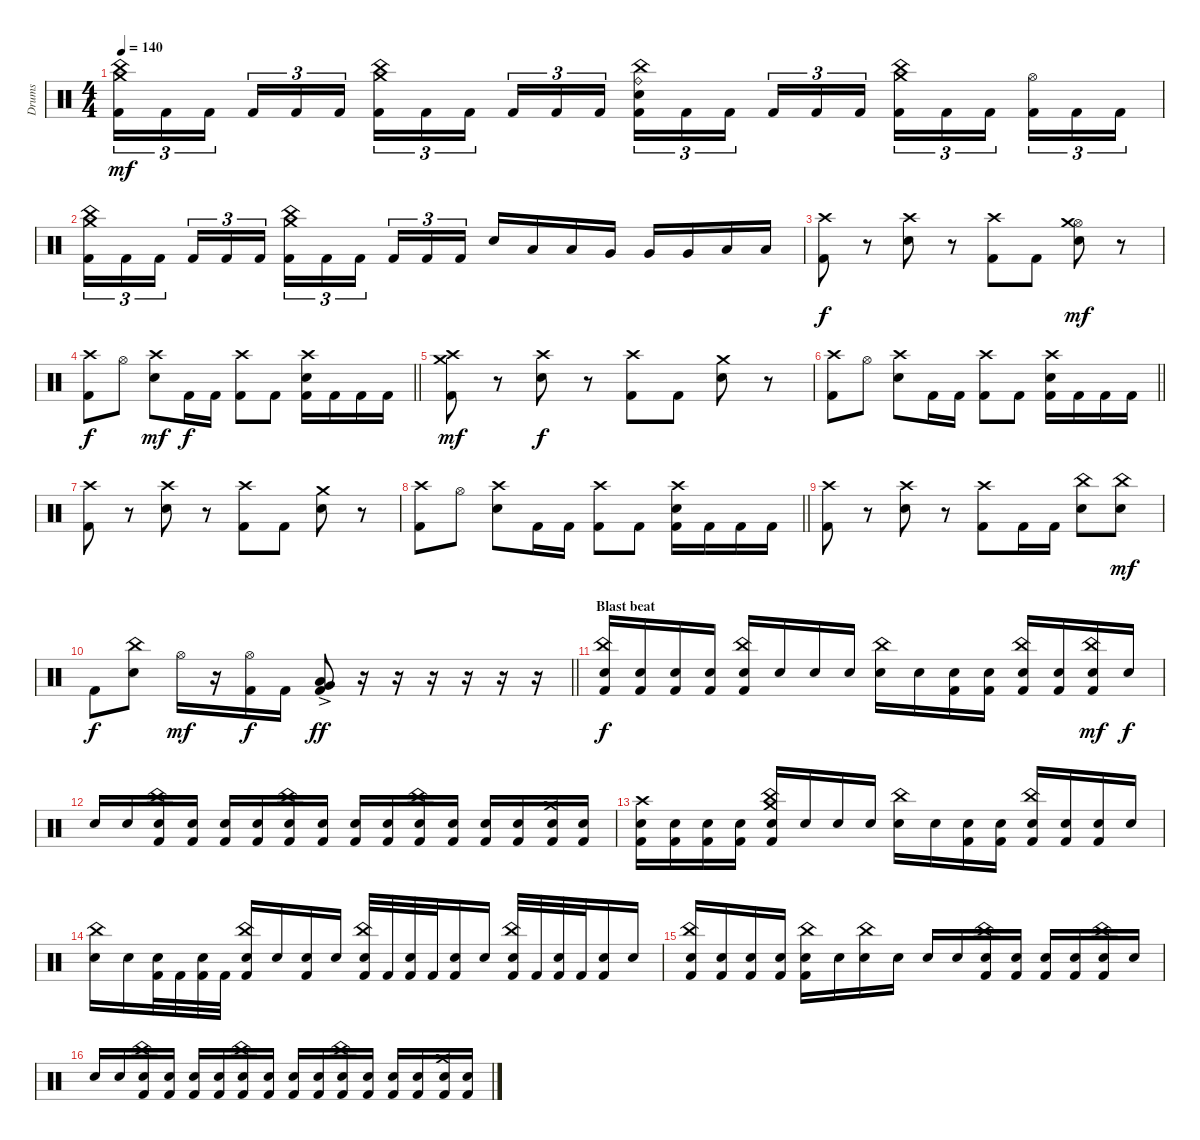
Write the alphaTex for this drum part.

\track ("Drums" "Drums") {instrument percussion}
\staff {score}
\articulation defaults
\ts (4 4)
\tempo 140
\clef neutral
\ks c
("Kick (hit) 2" "China (hit)" "Crash medium (hit)").16{tu (3 2) dy mf} "Kick (hit) 2".16{tu (3 2)} "Kick (hit) 2".16{tu (3 2) beam splitsecondary} "Kick (hit) 2".16{tu (3 2)} "Kick (hit) 2".16{tu (3 2)} "Kick (hit) 2".16{tu (3 2)} ("Kick (hit) 2" "China (hit)" "Crash medium (hit)").16{tu (3 2)} "Kick (hit) 2".16{tu (3 2)} "Kick (hit) 2".16{tu (3 2) beam splitsecondary} "Kick (hit) 2".16{tu (3 2)} "Kick (hit) 2".16{tu (3 2)} "Kick (hit) 2".16{tu (3 2)} ("Kick (hit) 2" "Electric Snare (hit)" "Ride (bell)" "China (hit)").16{tu (3 2)} "Kick (hit) 2".16{tu (3 2)} "Kick (hit) 2".16{tu (3 2) beam splitsecondary} "Kick (hit) 2".16{tu (3 2)} "Kick (hit) 2".16{tu (3 2)} "Kick (hit) 2".16{tu (3 2)} ("Kick (hit) 2" "China (hit)" "Crash medium (hit)").16{tu (3 2)} "Kick (hit) 2".16{tu (3 2)} "Kick (hit) 2".16{tu (3 2) beam splitsecondary} ("Kick (hit) 2" "Hi-Hat (open)").16{tu (3 2)} "Kick (hit) 2".16{tu (3 2)} "Kick (hit) 2".16{tu (3 2)} |
("Kick (hit) 2" "China (hit)" "Crash medium (hit)").16{tu (3 2)} "Kick (hit) 2".16{tu (3 2)} "Kick (hit) 2".16{tu (3 2) beam splitsecondary} "Kick (hit) 2".16{tu (3 2)} "Kick (hit) 2".16{tu (3 2)} "Kick (hit) 2".16{tu (3 2)} ("Kick (hit) 2" "China (hit)" "Crash medium (hit)").16{tu (3 2)} "Kick (hit) 2".16{tu (3 2)} "Kick (hit) 2".16{tu (3 2) beam splitsecondary} "Kick (hit) 2".16{tu (3 2)} "Kick (hit) 2".16{tu (3 2)} "Kick (hit) 2".16{tu (3 2)} "Electric Snare (hit)".16 "Low Tom (hit)".16 "Low Tom (hit)".16 "Very Low Tom (hit)".16 "Very Low Tom (hit)".16 "Very Low Tom (hit)".16 "Low Floor Tom (hit)".16 "Low Floor Tom (hit)".16 |
("Kick (hit) 2" "Crash high (hit)").8{dy f} r.8 ("Electric Snare (hit)" "Crash high (hit)").8 r.8 ("Kick (hit) 2" "Crash high (hit)").8 "Kick (hit) 2".8 ("Electric Snare (hit)" "Hi-Hat (open)" "Crash medium (hit)").8{dy mf} r.8 |
\barLineRight lightlight
("Kick (hit) 2" "Crash high (hit)").8{dy f} "Hi-Hat (open)".8 ("Electric Snare (hit)" "Crash high (hit)").8{dy mf} "Kick (hit) 2".16{dy f} "Kick (hit) 2".16 ("Kick (hit) 2" "Crash high (hit)").8 "Kick (hit) 2".8 ("Kick (hit) 2" "Electric Snare (hit)" "Crash high (hit)").16 "Kick (hit) 2".16 "Kick (hit) 2".16 "Kick (hit) 2".16 |
("Kick (hit) 2" "Crash high (hit)" "Crash medium (hit)").8{dy mf} r.8 ("Electric Snare (hit)" "Crash high (hit)").8{dy f} r.8 ("Kick (hit) 2" "Crash high (hit)").8 "Kick (hit) 2".8 ("Electric Snare (hit)" "Crash medium (hit)").8 r.8 |
\barLineRight lightlight
("Kick (hit) 2" "Crash high (hit)").8 "Hi-Hat (open)".8 ("Electric Snare (hit)" "Crash high (hit)").8 "Kick (hit) 2".16 "Kick (hit) 2".16 ("Kick (hit) 2" "Crash high (hit)").8 "Kick (hit) 2".8 ("Kick (hit) 2" "Electric Snare (hit)" "Crash high (hit)").16 "Kick (hit) 2".16 "Kick (hit) 2".16 "Kick (hit) 2".16 |
("Kick (hit) 2" "Crash high (hit)").8 r.8 ("Electric Snare (hit)" "Crash high (hit)").8 r.8 ("Kick (hit) 2" "Crash high (hit)").8 "Kick (hit) 2".8 ("Electric Snare (hit)" "Crash medium (hit)").8 r.8 |
\barLineRight lightlight
("Kick (hit) 2" "Crash high (hit)").8 "Hi-Hat (open)".8 ("Electric Snare (hit)" "Crash high (hit)").8 "Kick (hit) 2".16 "Kick (hit) 2".16 ("Kick (hit) 2" "Crash high (hit)").8 "Kick (hit) 2".8 ("Kick (hit) 2" "Electric Snare (hit)" "Crash high (hit)").16 "Kick (hit) 2".16 "Kick (hit) 2".16 "Kick (hit) 2".16 |
("Kick (hit) 2" "Crash high (hit)").8 r.8 ("Electric Snare (hit)" "Crash high (hit)").8 r.8 ("Kick (hit) 2" "Crash high (hit)").8 "Kick (hit) 2".16 "Kick (hit) 2".16 ("Electric Snare (hit)" "China (hit)").8 ("Electric Snare (hit)" "China (hit)").8{dy mf} |
\barLineRight lightlight "Kick (hit) 2".8{dy f}
("Electric Snare (hit)" "China (hit)").8 "Hi-Hat (open)".16{dy mf} r.16 ("Kick (hit) 2" "Hi-Hat (open)").16{dy f} "Kick (hit) 2".16 ("Kick (hit) 2"{ac} "Low Floor Tom (hit)"{ac} "Very Low Tom (hit)"{ac}).8{dy ff} r.16 r.16 r.16 r.16 r.16 r.16 |
\section ("" "Blast beat")
("Kick (hit) 2" "Electric Snare (hit)" "China (hit)").16{dy f} ("Kick (hit) 2" "Electric Snare (hit)").16 ("Kick (hit) 2" "Electric Snare (hit)").16 ("Kick (hit) 2" "Electric Snare (hit)").16 ("Kick (hit) 2" "Electric Snare (hit)" "China (hit)").16 "Electric Snare (hit)".16 "Electric Snare (hit)".16 "Electric Snare (hit)".16 ("Electric Snare (hit)" "China (hit)").16 "Electric Snare (hit)".16 ("Kick (hit) 2" "Electric Snare (hit)").16 ("Kick (hit) 2" "Electric Snare (hit)").16 ("Kick (hit) 2" "Electric Snare (hit)" "China (hit)").16 ("Kick (hit) 2" "Electric Snare (hit)").16 ("Kick (hit) 2" "Electric Snare (hit)" "China (hit)").16{dy mf} "Electric Snare (hit)".16{dy f} |
"Electric Snare (hit)".16 "Electric Snare (hit)".16 ("Kick (hit) 2" "Electric Snare (hit)" "China (hit)").16 ("Kick (hit) 2" "Electric Snare (hit)").16 ("Kick (hit) 2" "Electric Snare (hit)").16 ("Kick (hit) 2" "Electric Snare (hit)").16 ("Kick (hit) 2" "Electric Snare (hit)" "China (hit)").16 ("Kick (hit) 2" "Electric Snare (hit)").16 ("Kick (hit) 2" "Electric Snare (hit)").16 ("Kick (hit) 2" "Electric Snare (hit)").16 ("Kick (hit) 2" "Electric Snare (hit)" "China (hit)").16 ("Kick (hit) 2" "Electric Snare (hit)").16 ("Kick (hit) 2" "Electric Snare (hit)").16 ("Kick (hit) 2" "Electric Snare (hit)").16 ("Kick (hit) 2" "Electric Snare (hit)" "Crash medium (hit)").16 ("Kick (hit) 2" "Electric Snare (hit)").16 |
("Kick (hit) 2" "Electric Snare (hit)" "Crash high (hit)").16 ("Kick (hit) 2" "Electric Snare (hit)").16 ("Kick (hit) 2" "Electric Snare (hit)").16 ("Kick (hit) 2" "Electric Snare (hit)").16 ("Kick (hit) 2" "Electric Snare (hit)" "China (hit)" "Crash medium (hit)").16 "Electric Snare (hit)".16 "Electric Snare (hit)".16 "Electric Snare (hit)".16 ("Electric Snare (hit)" "China (hit)").16 "Electric Snare (hit)".16 ("Kick (hit) 2" "Electric Snare (hit)").16 ("Kick (hit) 2" "Electric Snare (hit)").16 ("Kick (hit) 2" "Electric Snare (hit)" "China (hit)").16 ("Kick (hit) 2" "Electric Snare (hit)").16 ("Kick (hit) 2" "Electric Snare (hit)").16 "Electric Snare (hit)".16 |
("Electric Snare (hit)" "China (hit)").16 "Electric Snare (hit)".16 ("Kick (hit) 2" "Electric Snare (hit)").32 "Kick (hit) 2".32 ("Kick (hit) 2" "Electric Snare (hit)").32 "Kick (hit) 2".32 ("Kick (hit) 2" "Electric Snare (hit)" "China (hit)").16 "Electric Snare (hit)".16 ("Kick (hit) 2" "Electric Snare (hit)").16 "Electric Snare (hit)".16 ("Kick (hit) 2" "Electric Snare (hit)" "China (hit)").32 "Kick (hit) 2".32 ("Kick (hit) 2" "Electric Snare (hit)").32 "Kick (hit) 2".32 ("Kick (hit) 2" "Electric Snare (hit)").16 "Electric Snare (hit)".16 ("Kick (hit) 2" "Electric Snare (hit)" "China (hit)").32 "Kick (hit) 2".32 ("Kick (hit) 2" "Electric Snare (hit)").32 "Kick (hit) 2".32 ("Kick (hit) 2" "Electric Snare (hit)").16 "Electric Snare (hit)".16 |
("Kick (hit) 2" "Electric Snare (hit)" "China (hit)").16 ("Kick (hit) 2" "Electric Snare (hit)").16 ("Kick (hit) 2" "Electric Snare (hit)").16 ("Kick (hit) 2" "Electric Snare (hit)").16 ("Kick (hit) 2" "Electric Snare (hit)" "China (hit)").16 "Electric Snare (hit)".16 ("Electric Snare (hit)" "China (hit)").16 "Electric Snare (hit)".16 "Electric Snare (hit)".16 "Electric Snare (hit)".16 ("Kick (hit) 2" "Electric Snare (hit)" "China (hit)").16 ("Kick (hit) 2" "Electric Snare (hit)").16 ("Kick (hit) 2" "Electric Snare (hit)").16 ("Kick (hit) 2" "Electric Snare (hit)").16 ("Kick (hit) 2" "Electric Snare (hit)" "China (hit)").16 "Electric Snare (hit)".16 |
"Electric Snare (hit)".16 "Electric Snare (hit)".16 ("Kick (hit) 2" "Electric Snare (hit)" "China (hit)").16 ("Kick (hit) 2" "Electric Snare (hit)").16 ("Kick (hit) 2" "Electric Snare (hit)").16 ("Kick (hit) 2" "Electric Snare (hit)").16 ("Kick (hit) 2" "Electric Snare (hit)" "China (hit)").16 ("Kick (hit) 2" "Electric Snare (hit)").16 ("Kick (hit) 2" "Electric Snare (hit)").16 ("Kick (hit) 2" "Electric Snare (hit)").16 ("Kick (hit) 2" "Electric Snare (hit)" "China (hit)").16 ("Kick (hit) 2" "Electric Snare (hit)").16 ("Kick (hit) 2" "Electric Snare (hit)").16 ("Kick (hit) 2" "Electric Snare (hit)").16 ("Kick (hit) 2" "Electric Snare (hit)" "Crash medium (hit)").16 ("Kick (hit) 2" "Electric Snare (hit)").16
